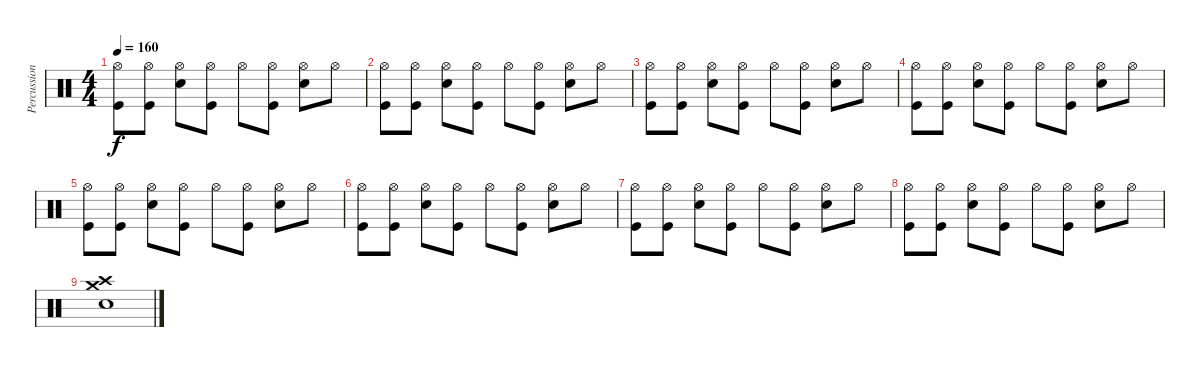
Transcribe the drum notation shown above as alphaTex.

\track ("Percussions" "Percussion") {instrument percussion}
\staff {score}
\articulation defaults
\ts (4 4)
\tempo 160
\clef neutral
\ks c
("Hi-Hat (open)" "Kick (hit)").8{dy f} ("Hi-Hat (open)" "Kick (hit)").8 ("Hi-Hat (open)" "Snare (hit) 2").8 ("Hi-Hat (open)" "Kick (hit)").8 "Hi-Hat (open)".8 ("Hi-Hat (open)" "Kick (hit)").8 ("Hi-Hat (open)" "Snare (hit) 2").8 "Hi-Hat (open)".8 |
("Hi-Hat (open)" "Kick (hit)").8 ("Hi-Hat (open)" "Kick (hit)").8 ("Hi-Hat (open)" "Snare (hit) 2").8 ("Hi-Hat (open)" "Kick (hit)").8 "Hi-Hat (open)".8 ("Hi-Hat (open)" "Kick (hit)").8 ("Hi-Hat (open)" "Snare (hit) 2").8 "Hi-Hat (open)".8 |
("Hi-Hat (open)" "Kick (hit)").8 ("Hi-Hat (open)" "Kick (hit)").8 ("Hi-Hat (open)" "Snare (hit) 2").8 ("Hi-Hat (open)" "Kick (hit)").8 "Hi-Hat (open)".8 ("Hi-Hat (open)" "Kick (hit)").8 ("Hi-Hat (open)" "Snare (hit) 2").8 "Hi-Hat (open)".8 |
("Hi-Hat (open)" "Kick (hit)").8 ("Hi-Hat (open)" "Kick (hit)").8 ("Hi-Hat (open)" "Snare (hit) 2").8 ("Hi-Hat (open)" "Kick (hit)").8 "Hi-Hat (open)".8 ("Hi-Hat (open)" "Kick (hit)").8 ("Hi-Hat (open)" "Snare (hit) 2").8 "Hi-Hat (open)".8 |
("Hi-Hat (open)" "Kick (hit)").8 ("Hi-Hat (open)" "Kick (hit)").8 ("Hi-Hat (open)" "Snare (hit) 2").8 ("Hi-Hat (open)" "Kick (hit)").8 "Hi-Hat (open)".8 ("Hi-Hat (open)" "Kick (hit)").8 ("Hi-Hat (open)" "Snare (hit) 2").8 "Hi-Hat (open)".8 |
("Hi-Hat (open)" "Kick (hit)").8 ("Hi-Hat (open)" "Kick (hit)").8 ("Hi-Hat (open)" "Snare (hit) 2").8 ("Hi-Hat (open)" "Kick (hit)").8 "Hi-Hat (open)".8 ("Hi-Hat (open)" "Kick (hit)").8 ("Hi-Hat (open)" "Snare (hit) 2").8 "Hi-Hat (open)".8 |
("Hi-Hat (open)" "Kick (hit)").8 ("Hi-Hat (open)" "Kick (hit)").8 ("Hi-Hat (open)" "Snare (hit) 2").8 ("Hi-Hat (open)" "Kick (hit)").8 "Hi-Hat (open)".8 ("Hi-Hat (open)" "Kick (hit)").8 ("Hi-Hat (open)" "Snare (hit) 2").8 "Hi-Hat (open)".8 |
("Hi-Hat (open)" "Kick (hit)").8 ("Hi-Hat (open)" "Kick (hit)").8 ("Hi-Hat (open)" "Snare (hit) 2").8 ("Hi-Hat (open)" "Kick (hit)").8 "Hi-Hat (open)".8 ("Hi-Hat (open)" "Kick (hit)").8 ("Hi-Hat (open)" "Snare (hit) 2").8 "Hi-Hat (open)".8 |
("Crash high (hit)" "Snare (hit) 2" "Crash medium (hit)").1
